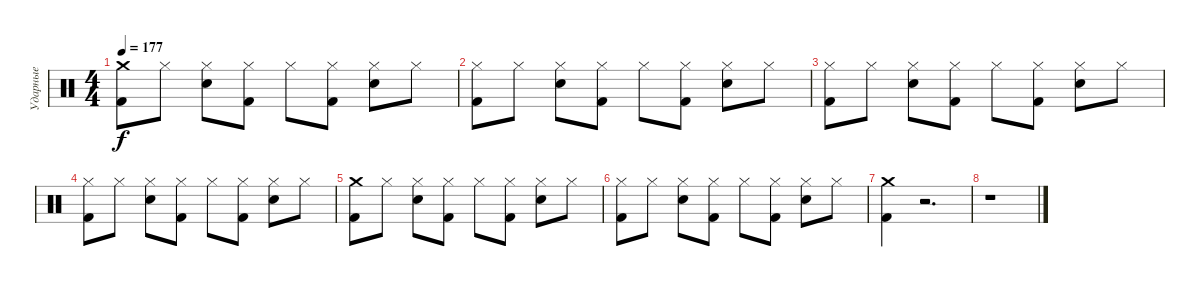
\track ("Ударные" "Ударные") {instrument percussion}
\staff {score}
\articulation defaults
\ts (4 4)
\tempo 177
\clef neutral
\ks c
("Crash medium (hit)" "Kick (hit) 2").8{dy f} "Hi-Hat (closed)".8 ("Hi-Hat (closed)" "Snare (hit) 2").8 ("Hi-Hat (closed)" "Kick (hit) 2").8 "Hi-Hat (closed)".8 ("Hi-Hat (closed)" "Kick (hit) 2").8 ("Hi-Hat (closed)" "Snare (hit) 2").8 "Hi-Hat (closed)".8 |
("Hi-Hat (closed)" "Kick (hit) 2").8 "Hi-Hat (closed)".8 ("Hi-Hat (closed)" "Snare (hit) 2").8 ("Hi-Hat (closed)" "Kick (hit) 2").8 "Hi-Hat (closed)".8 ("Hi-Hat (closed)" "Kick (hit) 2").8 ("Hi-Hat (closed)" "Snare (hit) 2").8 "Hi-Hat (closed)".8 |
("Hi-Hat (closed)" "Kick (hit) 2").8 "Hi-Hat (closed)".8 ("Hi-Hat (closed)" "Snare (hit) 2").8 ("Hi-Hat (closed)" "Kick (hit) 2").8 "Hi-Hat (closed)".8 ("Hi-Hat (closed)" "Kick (hit) 2").8 ("Hi-Hat (closed)" "Snare (hit) 2").8 "Hi-Hat (closed)".8 |
("Hi-Hat (closed)" "Kick (hit) 2").8 "Hi-Hat (closed)".8 ("Hi-Hat (closed)" "Snare (hit) 2").8 ("Hi-Hat (closed)" "Kick (hit) 2").8 "Hi-Hat (closed)".8 ("Hi-Hat (closed)" "Kick (hit) 2").8 ("Hi-Hat (closed)" "Snare (hit) 2").8 "Hi-Hat (closed)".8 |
("Crash medium (hit)" "Kick (hit) 2").8 "Hi-Hat (closed)".8 ("Hi-Hat (closed)" "Snare (hit) 2").8 ("Hi-Hat (closed)" "Kick (hit) 2").8 "Hi-Hat (closed)".8 ("Hi-Hat (closed)" "Kick (hit) 2").8 ("Hi-Hat (closed)" "Snare (hit) 2").8 "Hi-Hat (closed)".8 |
("Hi-Hat (closed)" "Kick (hit) 2").8 "Hi-Hat (closed)".8 ("Hi-Hat (closed)" "Snare (hit) 2").8 ("Hi-Hat (closed)" "Kick (hit) 2").8 "Hi-Hat (closed)".8 ("Hi-Hat (closed)" "Kick (hit) 2").8 ("Hi-Hat (closed)" "Snare (hit) 2").8 "Hi-Hat (closed)".8 |
("Crash medium (hit)" "Kick (hit) 2").4 r.2{d} |
r.1
